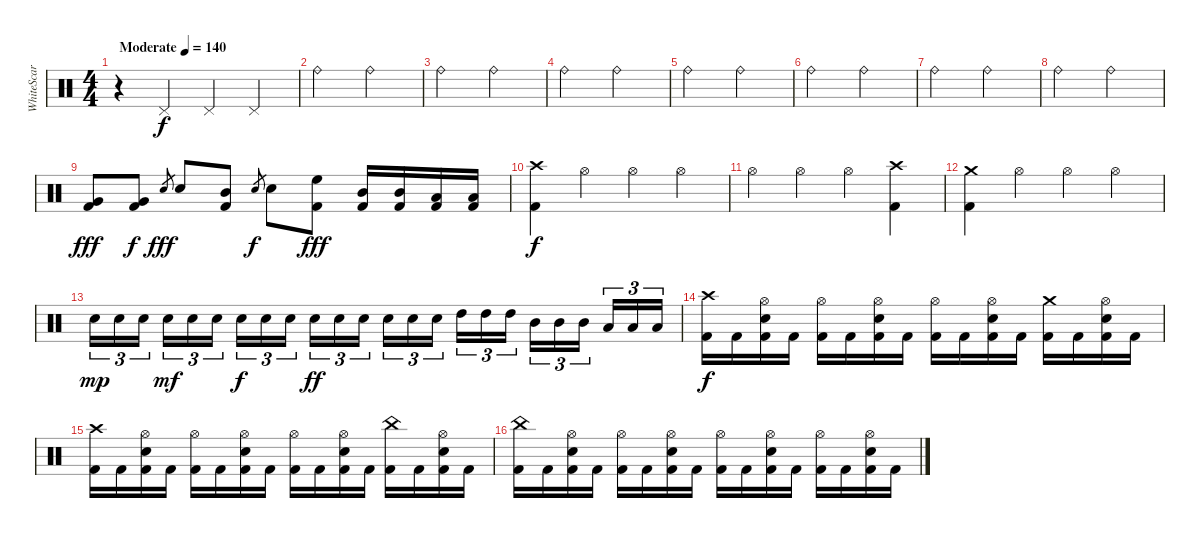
\track ("WhiteScar " "WhiteScar ") {instrument percussion}
\staff {score}
\articulation defaults
\ts (4 4)
\tempo (140 "Moderate")
\clef neutral
\ks c
r.4{dy f} "Pedal Hi-Hat (hit)".4 "Pedal Hi-Hat (hit)".4 "Pedal Hi-Hat (hit)".4 |
"Ride (bell)".2 "Ride (bell)".2 |
"Ride (bell)".2 "Ride (bell)".2 |
"Ride (bell)".2 "Ride (bell)".2 |
"Ride (bell)".2 "Ride (bell)".2 |
"Ride (bell)".2 "Ride (bell)".2 |
"Ride (bell)".2 "Ride (bell)".2 |
"Ride (bell)".2 "Ride (bell)".2 |
("Very Low Tom (hit)" "Kick (hit) 2").8{dy fff} ("Very Low Tom (hit)" "Kick (hit) 2").8{dy f} "Snare (hit) 2".8{gr dy fff} "Snare (hit) 2".8 ("Mid Tom (hit)" "Kick (hit) 2").8 "Snare (hit) 2".8{gr dy f} "Snare (hit) 2".8 ("High Floor Tom (hit)" "Kick (hit) 2").8{dy fff} ("Mid Tom (hit)" "Kick (hit) 2").16 ("Mid Tom (hit)" "Kick (hit) 2").16 ("Low Tom (hit)" "Kick (hit) 2").16 ("Low Tom (hit)" "Kick (hit) 2").16 |
("Crash high (hit)" "Kick (hit) 2").4{dy f} "Hi-Hat (open)".4 "Hi-Hat (open)".4 "Hi-Hat (open)".4 |
"Hi-Hat (open)".4 "Hi-Hat (open)".4 "Hi-Hat (open)".4 ("Crash high (hit)" "Kick (hit) 2").4 |
("Crash medium (hit)" "Kick (hit) 2").4 "Hi-Hat (open)".4 "Hi-Hat (open)".4 "Hi-Hat (open)".4 |
"Snare (hit) 2".16{tu (3 2) dy mp volume 3} "Snare (hit) 2".16{tu (3 2) volume 4} "Snare (hit) 2".16{tu (3 2) volume 5 beam splitsecondary} "Snare (hit) 2".16{tu (3 2) dy mf volume 5} "Snare (hit) 2".16{tu (3 2) volume 6} "Snare (hit) 2".16{tu (3 2)} "Snare (hit) 2".16{tu (3 2) dy f} "Snare (hit) 2".16{tu (3 2) volume 7} "Snare (hit) 2".16{tu (3 2) beam splitsecondary} "Snare (hit) 2".16{tu (3 2) dy ff volume 8} "Snare (hit) 2".16{tu (3 2)} "Snare (hit) 2".16{tu (3 2) volume 9} "Snare (hit) 2".16{tu (3 2) volume 10} "Snare (hit) 2".16{tu (3 2) volume 13} "Snare (hit) 2".16{tu (3 2) beam splitsecondary} "High Tom (hit)".16{tu (3 2)} "High Tom (hit)".16{tu (3 2)} "High Tom (hit)".16{tu (3 2)} "Mid Tom (hit)".16{tu (3 2)} "Mid Tom (hit)".16{tu (3 2)} "Mid Tom (hit)".16{tu (3 2) beam splitsecondary} "Low Tom (hit)".16{tu (3 2)} "Low Tom (hit)".16{tu (3 2)} "Low Tom (hit)".16{tu (3 2)} |
("Crash high (hit)" "Kick (hit) 2").16{dy f} "Kick (hit) 2".16 ("Hi-Hat (open)" "Snare (hit) 2" "Kick (hit) 2").16 "Kick (hit) 2".16 ("Hi-Hat (open)" "Kick (hit) 2").16 "Kick (hit) 2".16 ("Hi-Hat (open)" "Snare (hit) 2" "Kick (hit) 2").16 "Kick (hit) 2".16 ("Hi-Hat (open)" "Kick (hit) 2").16 "Kick (hit) 2".16 ("Hi-Hat (open)" "Snare (hit) 2" "Kick (hit) 2").16 "Kick (hit) 2".16 ("Crash medium (hit)" "Kick (hit) 2").16 "Kick (hit) 2".16 ("Hi-Hat (open)" "Snare (hit) 2" "Kick (hit) 2").16 "Kick (hit) 2".16 |
("Crash high (hit)" "Kick (hit) 2").16 "Kick (hit) 2".16 ("Hi-Hat (open)" "Snare (hit) 2" "Kick (hit) 2").16 "Kick (hit) 2".16 ("Hi-Hat (open)" "Kick (hit) 2").16 "Kick (hit) 2".16 ("Hi-Hat (open)" "Snare (hit) 2" "Kick (hit) 2").16 "Kick (hit) 2".16 ("Hi-Hat (open)" "Kick (hit) 2").16 "Kick (hit) 2".16 ("Hi-Hat (open)" "Snare (hit) 2" "Kick (hit) 2").16 "Kick (hit) 2".16 ("China (hit)" "Kick (hit) 2").16 "Kick (hit) 2".16 ("Hi-Hat (open)" "Snare (hit) 2" "Kick (hit) 2").16 "Kick (hit) 2".16 |
("China (hit)" "Kick (hit) 2").16 "Kick (hit) 2".16 ("Hi-Hat (open)" "Snare (hit) 2" "Kick (hit) 2").16 "Kick (hit) 2".16 ("Hi-Hat (open)" "Kick (hit) 2").16 "Kick (hit) 2".16 ("Hi-Hat (open)" "Snare (hit) 2" "Kick (hit) 2").16 "Kick (hit) 2".16 ("Hi-Hat (open)" "Kick (hit) 2").16 "Kick (hit) 2".16 ("Hi-Hat (open)" "Snare (hit) 2" "Kick (hit) 2").16 "Kick (hit) 2".16 ("Hi-Hat (open)" "Kick (hit) 2").16 "Kick (hit) 2".16 ("Hi-Hat (open)" "Snare (hit) 2" "Kick (hit) 2").16 "Kick (hit) 2".16
